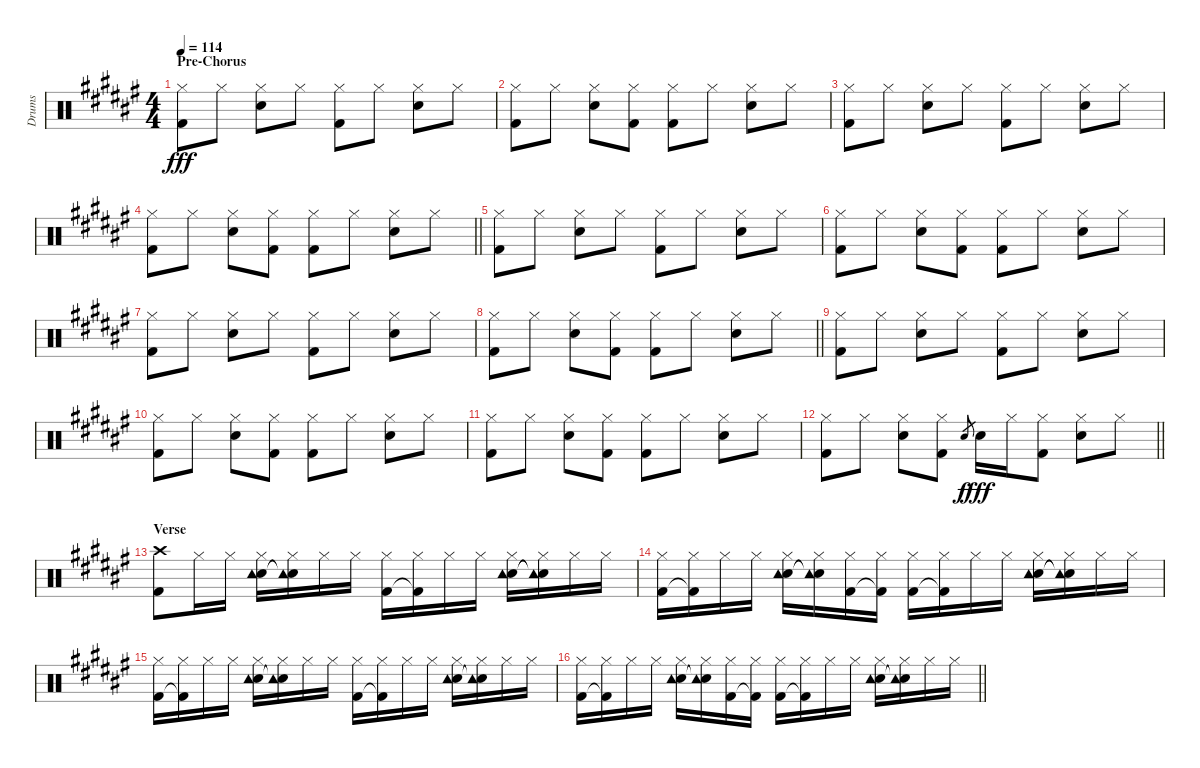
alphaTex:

\track ("Drums" "Drums") {instrument percussion}
\staff {score}
\articulation defaults
\ts (4 4)
\section ("" "Pre-Chorus")
\tempo 114
\clef neutral
\ks f#
("Hi-Hat (closed)" "Kick (hit) 2").8{dy fff} "Hi-Hat (closed)".8 ("Hi-Hat (closed)" "Electric Snare (hit)").8 "Hi-Hat (closed)".8 ("Hi-Hat (closed)" "Kick (hit) 2").8 "Hi-Hat (closed)".8 ("Hi-Hat (closed)" "Electric Snare (hit)").8 "Hi-Hat (closed)".8 |
("Hi-Hat (closed)" "Kick (hit) 2").8 "Hi-Hat (closed)".8 ("Hi-Hat (closed)" "Electric Snare (hit)").8 ("Hi-Hat (closed)" "Kick (hit) 2").8 ("Hi-Hat (closed)" "Kick (hit) 2").8 "Hi-Hat (closed)".8 ("Hi-Hat (closed)" "Electric Snare (hit)").8 "Hi-Hat (closed)".8 |
("Hi-Hat (closed)" "Kick (hit) 2").8 "Hi-Hat (closed)".8 ("Hi-Hat (closed)" "Electric Snare (hit)").8 "Hi-Hat (closed)".8 ("Hi-Hat (closed)" "Kick (hit) 2").8 "Hi-Hat (closed)".8 ("Hi-Hat (closed)" "Electric Snare (hit)").8 "Hi-Hat (closed)".8 |
\barLineRight lightlight
("Hi-Hat (closed)" "Kick (hit) 2").8 "Hi-Hat (closed)".8 ("Hi-Hat (closed)" "Electric Snare (hit)").8 ("Hi-Hat (closed)" "Kick (hit) 2").8 ("Hi-Hat (closed)" "Kick (hit) 2").8 "Hi-Hat (closed)".8 ("Hi-Hat (closed)" "Electric Snare (hit)").8 "Hi-Hat (closed)".8 |
("Hi-Hat (closed)" "Kick (hit) 2").8 "Hi-Hat (closed)".8 ("Hi-Hat (closed)" "Electric Snare (hit)").8 "Hi-Hat (closed)".8 ("Hi-Hat (closed)" "Kick (hit) 2").8 "Hi-Hat (closed)".8 ("Hi-Hat (closed)" "Electric Snare (hit)").8 "Hi-Hat (closed)".8 |
("Hi-Hat (closed)" "Kick (hit) 2").8 "Hi-Hat (closed)".8 ("Hi-Hat (closed)" "Electric Snare (hit)").8 ("Hi-Hat (closed)" "Kick (hit) 2").8 ("Hi-Hat (closed)" "Kick (hit) 2").8 "Hi-Hat (closed)".8 ("Hi-Hat (closed)" "Electric Snare (hit)").8 "Hi-Hat (closed)".8 |
("Hi-Hat (closed)" "Kick (hit) 2").8 "Hi-Hat (closed)".8 ("Hi-Hat (closed)" "Electric Snare (hit)").8 "Hi-Hat (closed)".8 ("Hi-Hat (closed)" "Kick (hit) 2").8 "Hi-Hat (closed)".8 ("Hi-Hat (closed)" "Electric Snare (hit)").8 "Hi-Hat (closed)".8 |
\barLineRight lightlight
("Hi-Hat (closed)" "Kick (hit) 2").8 "Hi-Hat (closed)".8 ("Hi-Hat (closed)" "Electric Snare (hit)").8 ("Hi-Hat (closed)" "Kick (hit) 2").8 ("Hi-Hat (closed)" "Kick (hit) 2").8 "Hi-Hat (closed)".8 ("Hi-Hat (closed)" "Electric Snare (hit)").8 "Hi-Hat (closed)".8 |
("Hi-Hat (closed)" "Kick (hit) 2").8 "Hi-Hat (closed)".8 ("Hi-Hat (closed)" "Electric Snare (hit)").8 "Hi-Hat (closed)".8 ("Hi-Hat (closed)" "Kick (hit) 2").8 "Hi-Hat (closed)".8 ("Hi-Hat (closed)" "Electric Snare (hit)").8 "Hi-Hat (closed)".8 |
("Hi-Hat (closed)" "Kick (hit) 2").8 "Hi-Hat (closed)".8 ("Hi-Hat (closed)" "Electric Snare (hit)").8 ("Hi-Hat (closed)" "Kick (hit) 2").8 ("Hi-Hat (closed)" "Kick (hit) 2").8 "Hi-Hat (closed)".8 ("Hi-Hat (closed)" "Electric Snare (hit)").8 "Hi-Hat (closed)".8 |
("Hi-Hat (closed)" "Kick (hit) 2").8 "Hi-Hat (closed)".8 ("Hi-Hat (closed)" "Electric Snare (hit)").8 ("Hi-Hat (closed)" "Kick (hit) 2").8 ("Hi-Hat (closed)" "Kick (hit) 2").8 "Hi-Hat (closed)".8 ("Hi-Hat (closed)" "Electric Snare (hit)").8 "Hi-Hat (closed)".8 |
\barLineRight lightlight
("Hi-Hat (closed)" "Kick (hit) 2").8 "Hi-Hat (closed)".8 ("Hi-Hat (closed)" "Electric Snare (hit)").8 ("Hi-Hat (closed)" "Kick (hit) 2").8 "Electric Snare (hit)".8{gr dy f} "Electric Snare (hit)".16{dy fff} "Hi-Hat (closed)".16 ("Hi-Hat (closed)" "Kick (hit) 2").8 ("Hi-Hat (closed)" "Electric Snare (hit)").8 "Hi-Hat (closed)".8 |
\section ("" "Verse")
("Crash high (hit)" "Kick (hit) 2").8 "Hi-Hat (closed)".16 "Hi-Hat (closed)".16 ("Hi-Hat (closed)" "Electric Snare (hit)" "Tambourine (hit)").16 ("Hi-Hat (closed)" "Electric Snare (hit)"{t} "Tambourine (hit)"{t}).16 "Hi-Hat (closed)".16 "Hi-Hat (closed)".16 ("Hi-Hat (closed)" "Kick (hit) 2").16 ("Hi-Hat (closed)" "Kick (hit) 2"{t}).16 "Hi-Hat (closed)".16 "Hi-Hat (closed)".16 ("Hi-Hat (closed)" "Electric Snare (hit)" "Tambourine (hit)").16 ("Hi-Hat (closed)" "Electric Snare (hit)"{t} "Tambourine (hit)"{t}).16 "Hi-Hat (closed)".16 "Hi-Hat (closed)".16 |
("Hi-Hat (closed)" "Kick (hit) 2").16 ("Hi-Hat (closed)" "Kick (hit) 2"{t}).16 "Hi-Hat (closed)".16 "Hi-Hat (closed)".16 ("Hi-Hat (closed)" "Electric Snare (hit)" "Tambourine (hit)").16 ("Hi-Hat (closed)" "Electric Snare (hit)"{t} "Tambourine (hit)"{t}).16 ("Hi-Hat (closed)" "Kick (hit) 2").16 ("Hi-Hat (closed)" "Kick (hit) 2"{t}).16 ("Hi-Hat (closed)" "Kick (hit) 2").16 ("Hi-Hat (closed)" "Kick (hit) 2"{t}).16 "Hi-Hat (closed)".16 "Hi-Hat (closed)".16 ("Hi-Hat (closed)" "Electric Snare (hit)" "Tambourine (hit)").16 ("Hi-Hat (closed)" "Electric Snare (hit)"{t} "Tambourine (hit)"{t}).16 "Hi-Hat (closed)".16 "Hi-Hat (closed)".16 |
("Hi-Hat (closed)" "Kick (hit) 2").16 ("Hi-Hat (closed)" "Kick (hit) 2"{t}).16 "Hi-Hat (closed)".16 "Hi-Hat (closed)".16 ("Hi-Hat (closed)" "Electric Snare (hit)" "Tambourine (hit)").16 ("Hi-Hat (closed)" "Electric Snare (hit)"{t} "Tambourine (hit)"{t}).16 "Hi-Hat (closed)".16 "Hi-Hat (closed)".16 ("Hi-Hat (closed)" "Kick (hit) 2").16 ("Hi-Hat (closed)" "Kick (hit) 2"{t}).16 "Hi-Hat (closed)".16 "Hi-Hat (closed)".16 ("Hi-Hat (closed)" "Electric Snare (hit)" "Tambourine (hit)").16 ("Hi-Hat (closed)" "Electric Snare (hit)"{t} "Tambourine (hit)"{t}).16 "Hi-Hat (closed)".16 "Hi-Hat (closed)".16 |
\barLineRight lightlight
("Hi-Hat (closed)" "Kick (hit) 2").16 ("Hi-Hat (closed)" "Kick (hit) 2"{t}).16 "Hi-Hat (closed)".16 "Hi-Hat (closed)".16 ("Hi-Hat (closed)" "Electric Snare (hit)" "Tambourine (hit)").16 ("Hi-Hat (closed)" "Electric Snare (hit)"{t} "Tambourine (hit)"{t}).16 ("Hi-Hat (closed)" "Kick (hit) 2").16 ("Hi-Hat (closed)" "Kick (hit) 2"{t}).16 ("Hi-Hat (closed)" "Kick (hit) 2").16 ("Hi-Hat (closed)" "Kick (hit) 2"{t}).16 "Hi-Hat (closed)".16 "Hi-Hat (closed)".16 ("Hi-Hat (closed)" "Electric Snare (hit)" "Tambourine (hit)").16 ("Hi-Hat (closed)" "Electric Snare (hit)"{t} "Tambourine (hit)"{t}).16 "Hi-Hat (closed)".16 "Hi-Hat (closed)".16
